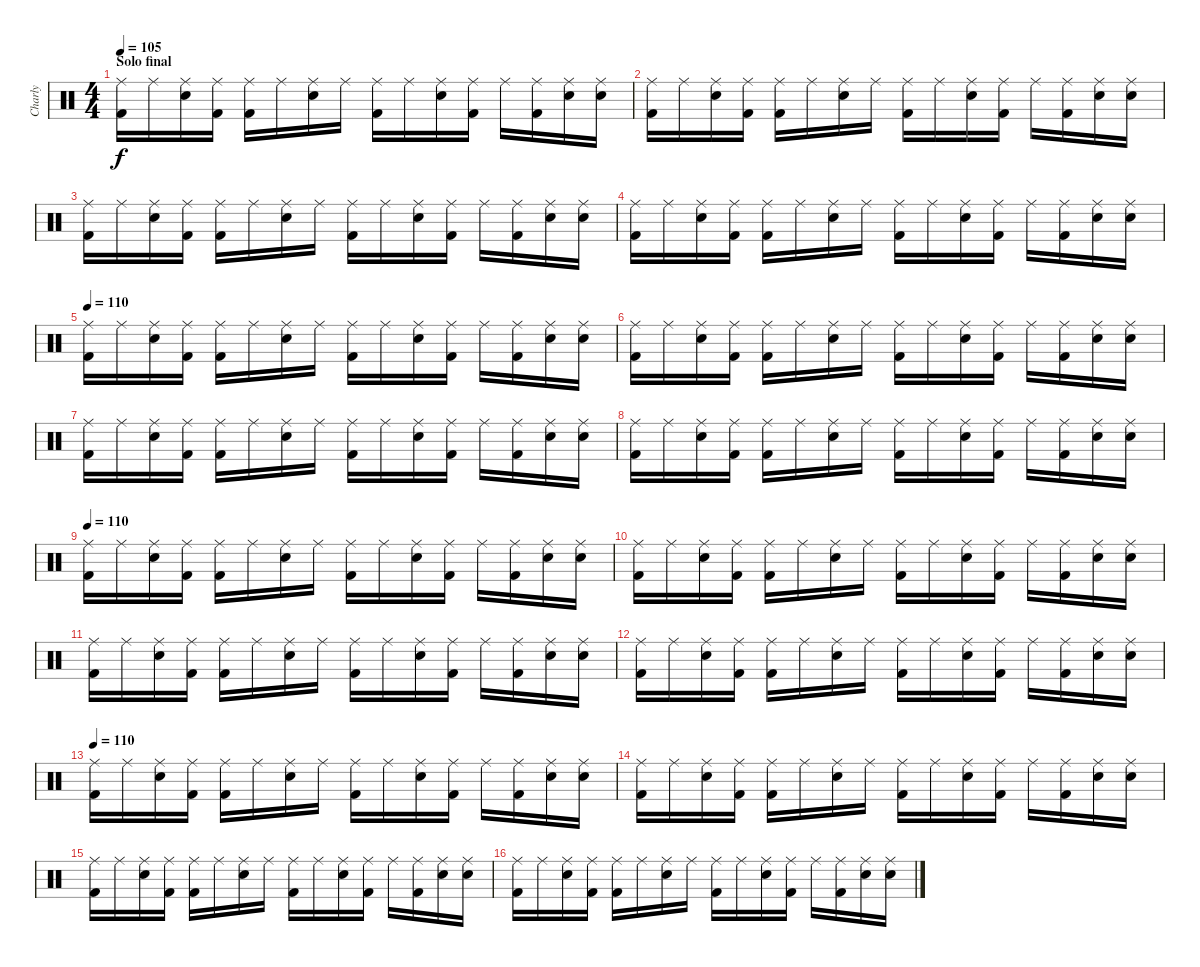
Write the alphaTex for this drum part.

\track ("Charly" "Charly") {instrument percussion}
\staff {score}
\articulation defaults
\ts (4 4)
\section ("" "Solo final")
\tempo 105
\clef neutral
\ks c
("Ride (middle)" "Kick (hit) 2").16{dy f} "Ride (middle)".16 ("Ride (middle)" "Electric Snare (hit)").16 ("Ride (middle)" "Kick (hit) 2").16 ("Ride (middle)" "Kick (hit) 2").16 "Ride (middle)".16 ("Ride (middle)" "Electric Snare (hit)").16 "Ride (middle)".16 ("Ride (middle)" "Kick (hit) 2").16 "Ride (middle)".16 ("Ride (middle)" "Electric Snare (hit)").16 ("Ride (middle)" "Kick (hit) 2").16 "Ride (middle)".16 ("Ride (middle)" "Kick (hit) 2").16 ("Ride (middle)" "Electric Snare (hit)").16 ("Ride (middle)" "Electric Snare (hit)").16 |
("Ride (middle)" "Kick (hit) 2").16 "Ride (middle)".16 ("Ride (middle)" "Electric Snare (hit)").16 ("Ride (middle)" "Kick (hit) 2").16 ("Ride (middle)" "Kick (hit) 2").16 "Ride (middle)".16 ("Ride (middle)" "Electric Snare (hit)").16 "Ride (middle)".16 ("Ride (middle)" "Kick (hit) 2").16 "Ride (middle)".16 ("Ride (middle)" "Electric Snare (hit)").16 ("Ride (middle)" "Kick (hit) 2").16 "Ride (middle)".16 ("Ride (middle)" "Kick (hit) 2").16 ("Ride (middle)" "Electric Snare (hit)").16 ("Ride (middle)" "Electric Snare (hit)").16 |
("Ride (middle)" "Kick (hit) 2").16 "Ride (middle)".16 ("Ride (middle)" "Electric Snare (hit)").16 ("Ride (middle)" "Kick (hit) 2").16 ("Ride (middle)" "Kick (hit) 2").16 "Ride (middle)".16 ("Ride (middle)" "Electric Snare (hit)").16 "Ride (middle)".16 ("Ride (middle)" "Kick (hit) 2").16 "Ride (middle)".16 ("Ride (middle)" "Electric Snare (hit)").16 ("Ride (middle)" "Kick (hit) 2").16 "Ride (middle)".16 ("Ride (middle)" "Kick (hit) 2").16 ("Ride (middle)" "Electric Snare (hit)").16 ("Ride (middle)" "Electric Snare (hit)").16 |
("Ride (middle)" "Kick (hit) 2").16 "Ride (middle)".16 ("Ride (middle)" "Electric Snare (hit)").16 ("Ride (middle)" "Kick (hit) 2").16 ("Ride (middle)" "Kick (hit) 2").16 "Ride (middle)".16 ("Ride (middle)" "Electric Snare (hit)").16 "Ride (middle)".16 ("Ride (middle)" "Kick (hit) 2").16 "Ride (middle)".16 ("Ride (middle)" "Electric Snare (hit)").16 ("Ride (middle)" "Kick (hit) 2").16 "Ride (middle)".16 ("Ride (middle)" "Kick (hit) 2").16 ("Ride (middle)" "Electric Snare (hit)").16 ("Ride (middle)" "Electric Snare (hit)").16 |
\tempo 110
("Ride (middle)" "Kick (hit) 2").16 "Ride (middle)".16 ("Ride (middle)" "Electric Snare (hit)").16 ("Ride (middle)" "Kick (hit) 2").16 ("Ride (middle)" "Kick (hit) 2").16 "Ride (middle)".16 ("Ride (middle)" "Electric Snare (hit)").16 "Ride (middle)".16 ("Ride (middle)" "Kick (hit) 2").16 "Ride (middle)".16 ("Ride (middle)" "Electric Snare (hit)").16 ("Ride (middle)" "Kick (hit) 2").16 "Ride (middle)".16 ("Ride (middle)" "Kick (hit) 2").16 ("Ride (middle)" "Electric Snare (hit)").16 ("Ride (middle)" "Electric Snare (hit)").16 |
("Ride (middle)" "Kick (hit) 2").16 "Ride (middle)".16 ("Ride (middle)" "Electric Snare (hit)").16 ("Ride (middle)" "Kick (hit) 2").16 ("Ride (middle)" "Kick (hit) 2").16 "Ride (middle)".16 ("Ride (middle)" "Electric Snare (hit)").16 "Ride (middle)".16 ("Ride (middle)" "Kick (hit) 2").16 "Ride (middle)".16 ("Ride (middle)" "Electric Snare (hit)").16 ("Ride (middle)" "Kick (hit) 2").16 "Ride (middle)".16 ("Ride (middle)" "Kick (hit) 2").16 ("Ride (middle)" "Electric Snare (hit)").16 ("Ride (middle)" "Electric Snare (hit)").16 |
("Ride (middle)" "Kick (hit) 2").16 "Ride (middle)".16 ("Ride (middle)" "Electric Snare (hit)").16 ("Ride (middle)" "Kick (hit) 2").16 ("Ride (middle)" "Kick (hit) 2").16 "Ride (middle)".16 ("Ride (middle)" "Electric Snare (hit)").16 "Ride (middle)".16 ("Ride (middle)" "Kick (hit) 2").16 "Ride (middle)".16 ("Ride (middle)" "Electric Snare (hit)").16 ("Ride (middle)" "Kick (hit) 2").16 "Ride (middle)".16 ("Ride (middle)" "Kick (hit) 2").16 ("Ride (middle)" "Electric Snare (hit)").16 ("Ride (middle)" "Electric Snare (hit)").16 |
("Ride (middle)" "Kick (hit) 2").16 "Ride (middle)".16 ("Ride (middle)" "Electric Snare (hit)").16 ("Ride (middle)" "Kick (hit) 2").16 ("Ride (middle)" "Kick (hit) 2").16 "Ride (middle)".16 ("Ride (middle)" "Electric Snare (hit)").16 "Ride (middle)".16 ("Ride (middle)" "Kick (hit) 2").16 "Ride (middle)".16 ("Ride (middle)" "Electric Snare (hit)").16 ("Ride (middle)" "Kick (hit) 2").16 "Ride (middle)".16 ("Ride (middle)" "Kick (hit) 2").16 ("Ride (middle)" "Electric Snare (hit)").16 ("Ride (middle)" "Electric Snare (hit)").16 |
\tempo 110
("Ride (middle)" "Kick (hit) 2").16 "Ride (middle)".16 ("Ride (middle)" "Electric Snare (hit)").16 ("Ride (middle)" "Kick (hit) 2").16 ("Ride (middle)" "Kick (hit) 2").16 "Ride (middle)".16 ("Ride (middle)" "Electric Snare (hit)").16 "Ride (middle)".16 ("Ride (middle)" "Kick (hit) 2").16 "Ride (middle)".16 ("Ride (middle)" "Electric Snare (hit)").16 ("Ride (middle)" "Kick (hit) 2").16 "Ride (middle)".16 ("Ride (middle)" "Kick (hit) 2").16 ("Ride (middle)" "Electric Snare (hit)").16 ("Ride (middle)" "Electric Snare (hit)").16 |
("Ride (middle)" "Kick (hit) 2").16 "Ride (middle)".16 ("Ride (middle)" "Electric Snare (hit)").16 ("Ride (middle)" "Kick (hit) 2").16 ("Ride (middle)" "Kick (hit) 2").16 "Ride (middle)".16 ("Ride (middle)" "Electric Snare (hit)").16 "Ride (middle)".16 ("Ride (middle)" "Kick (hit) 2").16 "Ride (middle)".16 ("Ride (middle)" "Electric Snare (hit)").16 ("Ride (middle)" "Kick (hit) 2").16 "Ride (middle)".16 ("Ride (middle)" "Kick (hit) 2").16 ("Ride (middle)" "Electric Snare (hit)").16 ("Ride (middle)" "Electric Snare (hit)").16 |
("Ride (middle)" "Kick (hit) 2").16 "Ride (middle)".16 ("Ride (middle)" "Electric Snare (hit)").16 ("Ride (middle)" "Kick (hit) 2").16 ("Ride (middle)" "Kick (hit) 2").16 "Ride (middle)".16 ("Ride (middle)" "Electric Snare (hit)").16 "Ride (middle)".16 ("Ride (middle)" "Kick (hit) 2").16 "Ride (middle)".16 ("Ride (middle)" "Electric Snare (hit)").16 ("Ride (middle)" "Kick (hit) 2").16 "Ride (middle)".16 ("Ride (middle)" "Kick (hit) 2").16 ("Ride (middle)" "Electric Snare (hit)").16 ("Ride (middle)" "Electric Snare (hit)").16 |
("Ride (middle)" "Kick (hit) 2").16 "Ride (middle)".16 ("Ride (middle)" "Electric Snare (hit)").16 ("Ride (middle)" "Kick (hit) 2").16 ("Ride (middle)" "Kick (hit) 2").16 "Ride (middle)".16 ("Ride (middle)" "Electric Snare (hit)").16 "Ride (middle)".16 ("Ride (middle)" "Kick (hit) 2").16 "Ride (middle)".16 ("Ride (middle)" "Electric Snare (hit)").16 ("Ride (middle)" "Kick (hit) 2").16 "Ride (middle)".16 ("Ride (middle)" "Kick (hit) 2").16 ("Ride (middle)" "Electric Snare (hit)").16 ("Ride (middle)" "Electric Snare (hit)").16 |
\tempo 110
("Ride (middle)" "Kick (hit) 2").16 "Ride (middle)".16 ("Ride (middle)" "Electric Snare (hit)").16 ("Ride (middle)" "Kick (hit) 2").16 ("Ride (middle)" "Kick (hit) 2").16 "Ride (middle)".16 ("Ride (middle)" "Electric Snare (hit)").16 "Ride (middle)".16 ("Ride (middle)" "Kick (hit) 2").16 "Ride (middle)".16 ("Ride (middle)" "Electric Snare (hit)").16 ("Ride (middle)" "Kick (hit) 2").16 "Ride (middle)".16 ("Ride (middle)" "Kick (hit) 2").16 ("Ride (middle)" "Electric Snare (hit)").16 ("Ride (middle)" "Electric Snare (hit)").16 |
("Ride (middle)" "Kick (hit) 2").16 "Ride (middle)".16 ("Ride (middle)" "Electric Snare (hit)").16 ("Ride (middle)" "Kick (hit) 2").16 ("Ride (middle)" "Kick (hit) 2").16 "Ride (middle)".16 ("Ride (middle)" "Electric Snare (hit)").16 "Ride (middle)".16 ("Ride (middle)" "Kick (hit) 2").16 "Ride (middle)".16 ("Ride (middle)" "Electric Snare (hit)").16 ("Ride (middle)" "Kick (hit) 2").16 "Ride (middle)".16 ("Ride (middle)" "Kick (hit) 2").16 ("Ride (middle)" "Electric Snare (hit)").16 ("Ride (middle)" "Electric Snare (hit)").16 |
("Ride (middle)" "Kick (hit) 2").16 "Ride (middle)".16 ("Ride (middle)" "Electric Snare (hit)").16 ("Ride (middle)" "Kick (hit) 2").16 ("Ride (middle)" "Kick (hit) 2").16 "Ride (middle)".16 ("Ride (middle)" "Electric Snare (hit)").16 "Ride (middle)".16 ("Ride (middle)" "Kick (hit) 2").16 "Ride (middle)".16 ("Ride (middle)" "Electric Snare (hit)").16 ("Ride (middle)" "Kick (hit) 2").16 "Ride (middle)".16 ("Ride (middle)" "Kick (hit) 2").16 ("Ride (middle)" "Electric Snare (hit)").16 ("Ride (middle)" "Electric Snare (hit)").16 |
("Ride (middle)" "Kick (hit) 2").16 "Ride (middle)".16 ("Ride (middle)" "Electric Snare (hit)").16 ("Ride (middle)" "Kick (hit) 2").16 ("Ride (middle)" "Kick (hit) 2").16 "Ride (middle)".16 ("Ride (middle)" "Electric Snare (hit)").16 "Ride (middle)".16 ("Ride (middle)" "Kick (hit) 2").16 "Ride (middle)".16 ("Ride (middle)" "Electric Snare (hit)").16 ("Ride (middle)" "Kick (hit) 2").16 "Ride (middle)".16 ("Ride (middle)" "Kick (hit) 2").16 ("Ride (middle)" "Electric Snare (hit)").16 ("Ride (middle)" "Electric Snare (hit)").16
